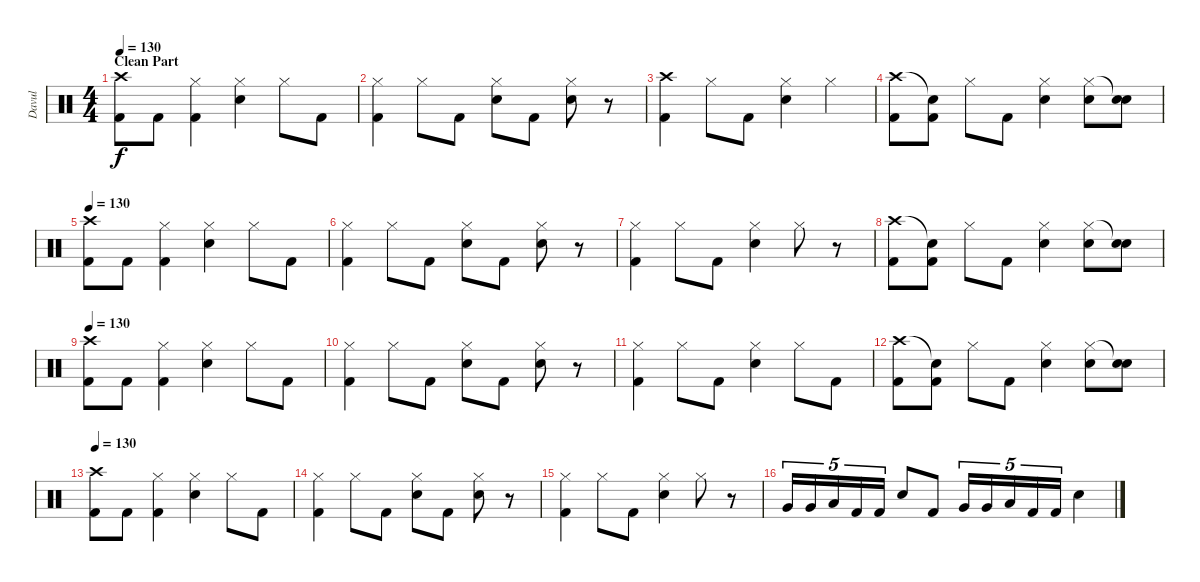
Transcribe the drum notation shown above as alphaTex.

\track ("Davul" "Davul") {instrument percussion}
\staff {score}
\articulation defaults
\ts (4 4)
\section ("" "Clean Part")
\tempo 130
\clef neutral
\ks c
("Crash high (hit)" "Kick (hit) 2").8{dy f} "Kick (hit) 2".8 ("Hi-Hat (closed)" "Kick (hit) 2").4 ("Hi-Hat (closed)" "Electric Snare (hit)").4 "Hi-Hat (closed)".8 "Kick (hit) 2".8 |
("Hi-Hat (closed)" "Kick (hit) 2").4 "Hi-Hat (closed)".8 "Kick (hit) 2".8 ("Hi-Hat (closed)" "Electric Snare (hit)").8 "Kick (hit) 2".8 ("Hi-Hat (closed)" "Electric Snare (hit)").8 r.8 |
("Crash high (hit)" "Kick (hit) 2").4 "Hi-Hat (closed)".8 "Kick (hit) 2".8 ("Hi-Hat (closed)" "Electric Snare (hit)").4 "Hi-Hat (closed)".4 |
("Crash high (hit)" "Kick (hit) 2").8 ("Snare (hit)"{t} "Kick (hit) 2").8 "Hi-Hat (closed)".8 "Kick (hit) 2".8 ("Hi-Hat (closed)" "Electric Snare (hit)").4 ("Hi-Hat (closed)" "Electric Snare (hit)").8 ("Snare (hit)"{t} "Electric Snare (hit)").8 |
\tempo 130
("Crash high (hit)" "Kick (hit) 2").8 "Kick (hit) 2".8 ("Hi-Hat (closed)" "Kick (hit) 2").4 ("Hi-Hat (closed)" "Electric Snare (hit)").4 "Hi-Hat (closed)".8 "Kick (hit) 2".8 |
("Hi-Hat (closed)" "Kick (hit) 2").4 "Hi-Hat (closed)".8 "Kick (hit) 2".8 ("Hi-Hat (closed)" "Electric Snare (hit)").8 "Kick (hit) 2".8 ("Hi-Hat (closed)" "Electric Snare (hit)").8 r.8 |
("Hi-Hat (closed)" "Kick (hit) 2").4 "Hi-Hat (closed)".8 "Kick (hit) 2".8 ("Hi-Hat (closed)" "Electric Snare (hit)").4 "Hi-Hat (closed)".8 r.8 |
("Crash high (hit)" "Kick (hit) 2").8 ("Snare (hit)"{t} "Kick (hit) 2").8 "Hi-Hat (closed)".8 "Kick (hit) 2".8 ("Hi-Hat (closed)" "Electric Snare (hit)").4 ("Hi-Hat (closed)" "Electric Snare (hit)").8 ("Snare (hit)"{t} "Electric Snare (hit)").8 |
\tempo 130
("Crash high (hit)" "Kick (hit) 2").8 "Kick (hit) 2".8 ("Hi-Hat (closed)" "Kick (hit) 2").4 ("Hi-Hat (closed)" "Electric Snare (hit)").4 "Hi-Hat (closed)".8 "Kick (hit) 2".8 |
("Hi-Hat (closed)" "Kick (hit) 2").4 "Hi-Hat (closed)".8 "Kick (hit) 2".8 ("Hi-Hat (closed)" "Electric Snare (hit)").8 "Kick (hit) 2".8 ("Hi-Hat (closed)" "Electric Snare (hit)").8 r.8 |
("Hi-Hat (closed)" "Kick (hit) 2").4 "Hi-Hat (closed)".8 "Kick (hit) 2".8 ("Hi-Hat (closed)" "Electric Snare (hit)").4 "Hi-Hat (closed)".8 "Kick (hit) 2".8 |
("Crash high (hit)" "Kick (hit) 2").8 ("Snare (hit)"{t} "Kick (hit) 2").8 "Hi-Hat (closed)".8 "Kick (hit) 2".8 ("Hi-Hat (closed)" "Electric Snare (hit)").4 ("Hi-Hat (closed)" "Electric Snare (hit)").8 ("Snare (hit)"{t} "Electric Snare (hit)").8 |
\tempo 130
("Crash high (hit)" "Kick (hit) 2").8 "Kick (hit) 2".8 ("Hi-Hat (closed)" "Kick (hit) 2").4 ("Hi-Hat (closed)" "Electric Snare (hit)").4 "Hi-Hat (closed)".8 "Kick (hit) 2".8 |
("Hi-Hat (closed)" "Kick (hit) 2").4 "Hi-Hat (closed)".8 "Kick (hit) 2".8 ("Hi-Hat (closed)" "Electric Snare (hit)").8 "Kick (hit) 2".8 ("Hi-Hat (closed)" "Electric Snare (hit)").8 r.8 |
("Hi-Hat (closed)" "Kick (hit) 2").4 "Hi-Hat (closed)".8 "Kick (hit) 2".8 ("Hi-Hat (closed)" "Electric Snare (hit)").4 "Hi-Hat (closed)".8 r.8 |
"Very Low Tom (hit)".16{tu (5 4)} "Very Low Tom (hit)".16{tu (5 4)} "Low Tom (hit)".16{tu (5 4)} "Kick (hit) 2".16{tu (5 4)} "Kick (hit) 2".16{tu (5 4)} "Electric Snare (hit)".8 "Kick (hit) 2".8 "Very Low Tom (hit)".16{tu (5 4)} "Very Low Tom (hit)".16{tu (5 4)} "Low Tom (hit)".16{tu (5 4)} "Kick (hit) 2".16{tu (5 4)} "Kick (hit) 2".16{tu (5 4)} "Electric Snare (hit)".4
